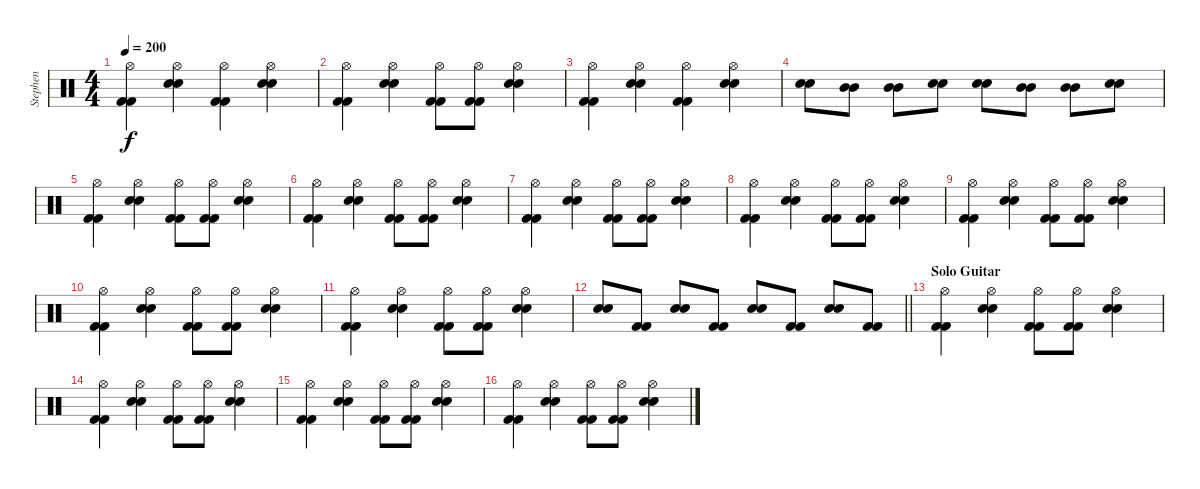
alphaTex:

\track ("Stephen" "Stephen") {instrument percussion}
\staff {score}
\articulation defaults
\ts (4 4)
\tempo 200
\clef neutral
\ks c
("Hi-Hat (open)" "Kick (hit) 2" "Kick (hit) 2").4{dy f} ("Hi-Hat (open)" "Electric Snare (hit)" "Electric Snare (hit)").4 ("Hi-Hat (open)" "Kick (hit) 2" "Kick (hit) 2").4 ("Hi-Hat (open)" "Electric Snare (hit)" "Electric Snare (hit)").4 |
("Hi-Hat (open)" "Kick (hit) 2" "Kick (hit) 2").4 ("Hi-Hat (open)" "Electric Snare (hit)" "Electric Snare (hit)").4 ("Hi-Hat (open)" "Kick (hit) 2" "Kick (hit) 2").8 ("Hi-Hat (open)" "Kick (hit) 2" "Kick (hit) 2").8 ("Hi-Hat (open)" "Electric Snare (hit)" "Electric Snare (hit)").4 |
("Hi-Hat (open)" "Kick (hit) 2" "Kick (hit) 2").4 ("Hi-Hat (open)" "Electric Snare (hit)" "Electric Snare (hit)").4 ("Hi-Hat (open)" "Kick (hit) 2" "Kick (hit) 2").4 ("Hi-Hat (open)" "Electric Snare (hit)" "Electric Snare (hit)").4 |
("Electric Snare (hit)" "Electric Snare (hit)").8 ("Mid Tom (hit)" "Mid Tom (hit)").8 ("Mid Tom (hit)" "Mid Tom (hit)").8 ("Electric Snare (hit)" "Electric Snare (hit)").8 ("Electric Snare (hit)" "Electric Snare (hit)").8 ("Mid Tom (hit)" "Mid Tom (hit)").8 ("Mid Tom (hit)" "Mid Tom (hit)").8 ("Electric Snare (hit)" "Electric Snare (hit)").8 |
("Hi-Hat (open)" "Kick (hit) 2" "Kick (hit) 2").4 ("Hi-Hat (open)" "Electric Snare (hit)" "Electric Snare (hit)").4 ("Hi-Hat (open)" "Kick (hit) 2" "Kick (hit) 2").8 ("Hi-Hat (open)" "Kick (hit) 2" "Kick (hit) 2").8 ("Hi-Hat (open)" "Electric Snare (hit)" "Electric Snare (hit)").4 |
("Hi-Hat (open)" "Kick (hit) 2" "Kick (hit) 2").4 ("Hi-Hat (open)" "Electric Snare (hit)" "Electric Snare (hit)").4 ("Hi-Hat (open)" "Kick (hit) 2" "Kick (hit) 2").8 ("Hi-Hat (open)" "Kick (hit) 2" "Kick (hit) 2").8 ("Hi-Hat (open)" "Electric Snare (hit)" "Electric Snare (hit)").4 |
("Hi-Hat (open)" "Kick (hit) 2" "Kick (hit) 2").4 ("Hi-Hat (open)" "Electric Snare (hit)" "Electric Snare (hit)").4 ("Hi-Hat (open)" "Kick (hit) 2" "Kick (hit) 2").8 ("Hi-Hat (open)" "Kick (hit) 2" "Kick (hit) 2").8 ("Hi-Hat (open)" "Electric Snare (hit)" "Electric Snare (hit)").4 |
("Hi-Hat (open)" "Kick (hit) 2" "Kick (hit) 2").4 ("Hi-Hat (open)" "Electric Snare (hit)" "Electric Snare (hit)").4 ("Hi-Hat (open)" "Kick (hit) 2" "Kick (hit) 2").8 ("Hi-Hat (open)" "Kick (hit) 2" "Kick (hit) 2").8 ("Hi-Hat (open)" "Electric Snare (hit)" "Electric Snare (hit)").4 |
("Hi-Hat (open)" "Kick (hit) 2" "Kick (hit) 2").4 ("Hi-Hat (open)" "Electric Snare (hit)" "Electric Snare (hit)").4 ("Hi-Hat (open)" "Kick (hit) 2" "Kick (hit) 2").8 ("Hi-Hat (open)" "Kick (hit) 2" "Kick (hit) 2").8 ("Hi-Hat (open)" "Electric Snare (hit)" "Electric Snare (hit)").4 |
("Hi-Hat (open)" "Kick (hit) 2" "Kick (hit) 2").4 ("Hi-Hat (open)" "Electric Snare (hit)" "Electric Snare (hit)").4 ("Hi-Hat (open)" "Kick (hit) 2" "Kick (hit) 2").8 ("Hi-Hat (open)" "Kick (hit) 2" "Kick (hit) 2").8 ("Hi-Hat (open)" "Electric Snare (hit)" "Electric Snare (hit)").4 |
("Hi-Hat (open)" "Kick (hit) 2" "Kick (hit) 2").4 ("Hi-Hat (open)" "Electric Snare (hit)" "Electric Snare (hit)").4 ("Hi-Hat (open)" "Kick (hit) 2" "Kick (hit) 2").8 ("Hi-Hat (open)" "Kick (hit) 2" "Kick (hit) 2").8 ("Hi-Hat (open)" "Electric Snare (hit)" "Electric Snare (hit)").4 |
\barLineRight lightlight
("Electric Snare (hit)" "Electric Snare (hit)").8 ("Kick (hit) 2" "Kick (hit) 2").8 ("Electric Snare (hit)" "Electric Snare (hit)").8 ("Kick (hit) 2" "Kick (hit) 2").8 ("Electric Snare (hit)" "Electric Snare (hit)").8 ("Kick (hit) 2" "Kick (hit) 2").8 ("Electric Snare (hit)" "Electric Snare (hit)").8 ("Kick (hit) 2" "Kick (hit) 2").8 |
\section ("" "Solo Guitar")
("Hi-Hat (open)" "Kick (hit) 2" "Kick (hit) 2").4 ("Hi-Hat (open)" "Electric Snare (hit)" "Electric Snare (hit)").4 ("Hi-Hat (open)" "Kick (hit) 2" "Kick (hit) 2").8 ("Hi-Hat (open)" "Kick (hit) 2" "Kick (hit) 2").8 ("Hi-Hat (open)" "Electric Snare (hit)" "Electric Snare (hit)").4 |
("Hi-Hat (open)" "Kick (hit) 2" "Kick (hit) 2").4 ("Hi-Hat (open)" "Electric Snare (hit)" "Electric Snare (hit)").4 ("Hi-Hat (open)" "Kick (hit) 2" "Kick (hit) 2").8 ("Hi-Hat (open)" "Kick (hit) 2" "Kick (hit) 2").8 ("Hi-Hat (open)" "Electric Snare (hit)" "Electric Snare (hit)").4 |
("Hi-Hat (open)" "Kick (hit) 2" "Kick (hit) 2").4 ("Hi-Hat (open)" "Electric Snare (hit)" "Electric Snare (hit)").4 ("Hi-Hat (open)" "Kick (hit) 2" "Kick (hit) 2").8 ("Hi-Hat (open)" "Kick (hit) 2" "Kick (hit) 2").8 ("Hi-Hat (open)" "Electric Snare (hit)" "Electric Snare (hit)").4 |
("Hi-Hat (open)" "Kick (hit) 2" "Kick (hit) 2").4 ("Hi-Hat (open)" "Electric Snare (hit)" "Electric Snare (hit)").4 ("Hi-Hat (open)" "Kick (hit) 2" "Kick (hit) 2").8 ("Hi-Hat (open)" "Kick (hit) 2" "Kick (hit) 2").8 ("Hi-Hat (open)" "Electric Snare (hit)" "Electric Snare (hit)").4
